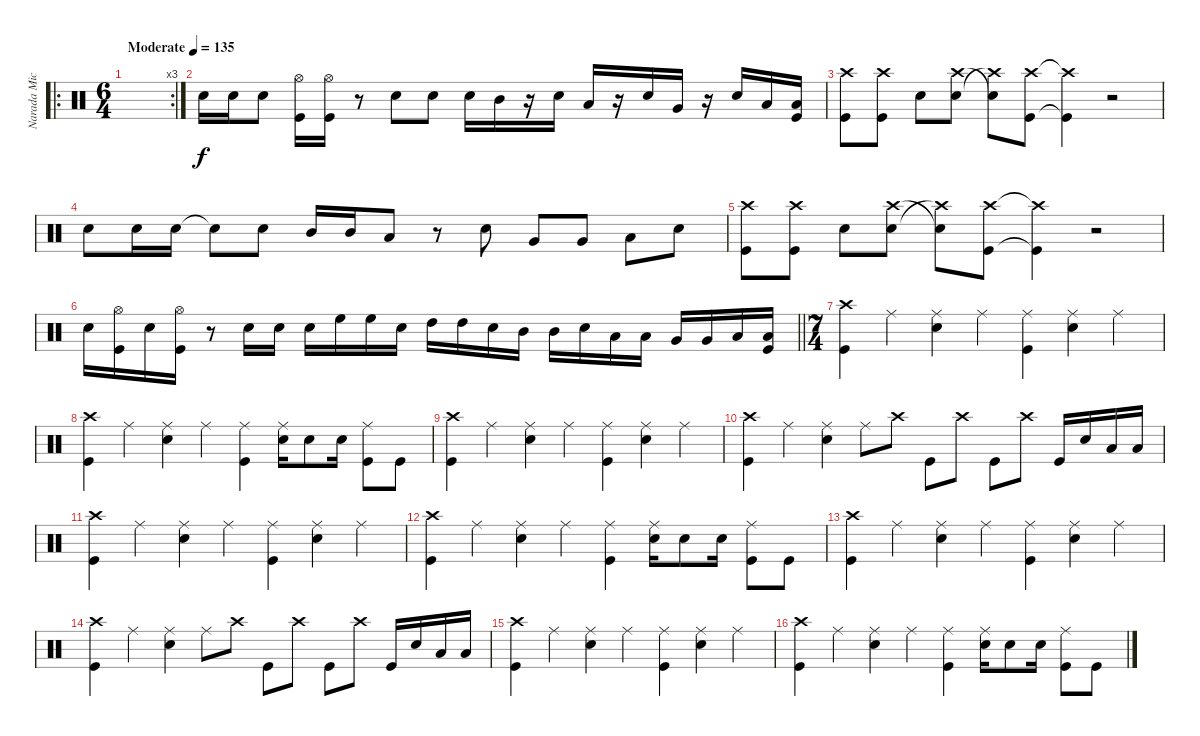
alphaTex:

\track ("Narada Michael Walden" "Narada Mic") {instrument percussion}
\staff {score}
\articulation defaults
\ro
\rc 3
\ts (6 4)
\tempo (135 "Moderate")
\clef neutral
\ks c
|
"Snare (hit) 2".16 "Snare (hit) 2".16 "Snare (hit) 2".8 ("Kick (hit)" "Hi-Hat (open)").16 ("Hi-Hat (open)" "Kick (hit)").16 r.8 "Snare (hit) 2".8 "Snare (hit) 2".8 "Snare (hit) 2".16 "Mid Tom (hit)".16 r.16 "Snare (hit) 2".16 "Low Tom (hit)".16 r.16 "Snare (hit) 2".16 "Very Low Tom (hit)".16 r.16 "Snare (hit) 2".16 "Low Floor Tom (hit)".16 ("Low Floor Tom (hit)" "Kick (hit)").16 |
("Kick (hit)" "Crash high (hit)").8 ("Kick (hit)" "Crash high (hit)").8 "Snare (hit) 2".8 ("Snare (hit) 2" "Crash high (hit)").8 ("Crash high (hit)"{t} "Snare (hit) 2"{t}).8 ("Kick (hit)" "Crash high (hit)").8 ("Kick (hit)"{t} "Crash high (hit)"{t}).4 r.2 |
"Snare (hit) 2".8 "Snare (hit) 2".16 "Snare (hit) 2".16 "Snare (hit) 2"{t}.8 "Snare (hit) 2".8 "Mid Tom (hit)".16 "Mid Tom (hit)".16 "Low Tom (hit)".8 r.8 "Snare (hit) 2".8 "Very Low Tom (hit)".8 "Very Low Tom (hit)".8 "Low Floor Tom (hit)".8 "Snare (hit) 2".8 |
("Kick (hit)" "Crash high (hit)").8 ("Kick (hit)" "Crash high (hit)").8 "Snare (hit) 2".8 ("Snare (hit) 2" "Crash high (hit)").8 ("Crash high (hit)"{t} "Snare (hit) 2"{t}).8 ("Kick (hit)" "Crash high (hit)").8 ("Kick (hit)"{t} "Crash high (hit)"{t}).4 r.2 |
\barLineRight lightlight "Snare (hit) 2".16
("Kick (hit)" "Hi-Hat (open)").16 "Snare (hit) 2".16 ("Kick (hit)" "Hi-Hat (open)").16 r.8 "Snare (hit) 2".16 "Snare (hit) 2".16 "Snare (hit) 2".16 "High Floor Tom (hit)".16 "High Floor Tom (hit)".16 "Snare (hit) 2".16 "High Tom (hit)".16 "High Tom (hit)".16 "Snare (hit) 2".16 "Mid Tom (hit)".16 "Mid Tom (hit)".16 "Snare (hit) 2".16 "Low Tom (hit)".16 "Low Tom (hit)".16 "Very Low Tom (hit)".16 "Very Low Tom (hit)".16 "Low Floor Tom (hit)".16 ("Low Floor Tom (hit)" "Kick (hit)").16 |
\ts (7 4)
("Kick (hit)" "Crash high (hit)").4 "Ride (middle)".4 ("Ride (middle)" "Snare (hit) 2").4 "Ride (middle)".4 ("Ride (middle)" "Kick (hit)").4 ("Ride (middle)" "Snare (hit) 2").4 "Ride (middle)".4 |
("Kick (hit)" "Crash high (hit)").4 "Ride (middle)".4 ("Ride (middle)" "Snare (hit) 2").4 "Ride (middle)".4 ("Ride (middle)" "Kick (hit)").4 ("Ride (middle)" "Snare (hit) 2").16 "Snare (hit) 2".8 "Snare (hit) 2".16 ("Kick (hit)" "Ride (middle)").8 "Kick (hit)".8 |
("Kick (hit)" "Crash high (hit)").4 "Ride (middle)".4 ("Ride (middle)" "Snare (hit) 2").4 "Ride (middle)".4 ("Ride (middle)" "Kick (hit)").4 ("Ride (middle)" "Snare (hit) 2").4 "Ride (middle)".4 |
("Kick (hit)" "Crash high (hit)").4 "Ride (middle)".4 ("Ride (middle)" "Snare (hit) 2").4 "Ride (middle)".8 "Crash high (hit)".8 "Kick (hit)".8 "Crash high (hit)".8 "Kick (hit)".8 "Crash high (hit)".8 "Kick (hit)".16 "Snare (hit) 2".16 "Low Tom (hit)".16 "Low Tom (hit)".16 |
("Kick (hit)" "Crash high (hit)").4 "Ride (middle)".4 ("Ride (middle)" "Snare (hit) 2").4 "Ride (middle)".4 ("Ride (middle)" "Kick (hit)").4 ("Ride (middle)" "Snare (hit) 2").4 "Ride (middle)".4 |
("Kick (hit)" "Crash high (hit)").4 "Ride (middle)".4 ("Ride (middle)" "Snare (hit) 2").4 "Ride (middle)".4 ("Ride (middle)" "Kick (hit)").4 ("Ride (middle)" "Snare (hit) 2").16 "Snare (hit) 2".8 "Snare (hit) 2".16 ("Kick (hit)" "Ride (middle)").8 "Kick (hit)".8 |
("Kick (hit)" "Crash high (hit)").4 "Ride (middle)".4 ("Ride (middle)" "Snare (hit) 2").4 "Ride (middle)".4 ("Ride (middle)" "Kick (hit)").4 ("Ride (middle)" "Snare (hit) 2").4 "Ride (middle)".4 |
("Kick (hit)" "Crash high (hit)").4 "Ride (middle)".4 ("Ride (middle)" "Snare (hit) 2").4 "Ride (middle)".8 "Crash high (hit)".8 "Kick (hit)".8 "Crash high (hit)".8 "Kick (hit)".8 "Crash high (hit)".8 "Kick (hit)".16 "Snare (hit) 2".16 "Low Tom (hit)".16 "Low Tom (hit)".16 |
("Kick (hit)" "Crash high (hit)").4 "Ride (middle)".4 ("Ride (middle)" "Snare (hit) 2").4 "Ride (middle)".4 ("Ride (middle)" "Kick (hit)").4 ("Ride (middle)" "Snare (hit) 2").4 "Ride (middle)".4 |
("Kick (hit)" "Crash high (hit)").4 "Ride (middle)".4 ("Ride (middle)" "Snare (hit) 2").4 "Ride (middle)".4 ("Ride (middle)" "Kick (hit)").4 ("Ride (middle)" "Snare (hit) 2").16 "Snare (hit) 2".8 "Snare (hit) 2".16 ("Kick (hit)" "Ride (middle)").8 "Kick (hit)".8
